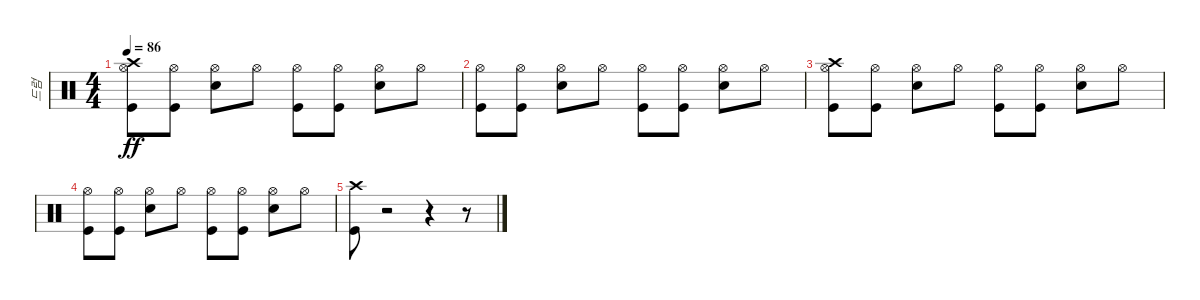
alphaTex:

\track ("드럼" "드럼") {instrument percussion}
\staff {score}
\articulation defaults
\ts (4 4)
\tempo 86
\clef neutral
\ks c
("Kick (hit)" "Hi-Hat (open)" "Crash high (hit)").8{dy ff} ("Kick (hit)" "Hi-Hat (open)").8 ("Hi-Hat (open)" "Electric Snare (hit)").8 "Hi-Hat (open)".8 ("Hi-Hat (open)" "Kick (hit)").8 ("Hi-Hat (open)" "Kick (hit)").8 ("Hi-Hat (open)" "Electric Snare (hit)").8 "Hi-Hat (open)".8 |
("Hi-Hat (open)" "Kick (hit)").8 ("Hi-Hat (open)" "Kick (hit)").8 ("Hi-Hat (open)" "Electric Snare (hit)").8 "Hi-Hat (open)".8 ("Hi-Hat (open)" "Kick (hit)").8 ("Hi-Hat (open)" "Kick (hit)").8 ("Hi-Hat (open)" "Electric Snare (hit)").8 "Hi-Hat (open)".8 |
("Crash high (hit)" "Kick (hit)" "Hi-Hat (open)").8 ("Hi-Hat (open)" "Kick (hit)").8 ("Electric Snare (hit)" "Hi-Hat (open)").8 "Hi-Hat (open)".8 ("Hi-Hat (open)" "Kick (hit)").8 ("Hi-Hat (open)" "Kick (hit)").8 ("Hi-Hat (open)" "Electric Snare (hit)").8 "Hi-Hat (open)".8 |
("Kick (hit)" "Hi-Hat (open)").8 ("Kick (hit)" "Hi-Hat (open)").8 ("Hi-Hat (open)" "Electric Snare (hit)").8 "Hi-Hat (open)".8 ("Hi-Hat (open)" "Kick (hit)").8 ("Hi-Hat (open)" "Kick (hit)").8 ("Electric Snare (hit)" "Hi-Hat (open)").8 "Hi-Hat (open)".8 |
("Crash high (hit)" "Kick (hit)").8 r.2 r.4 r.8
